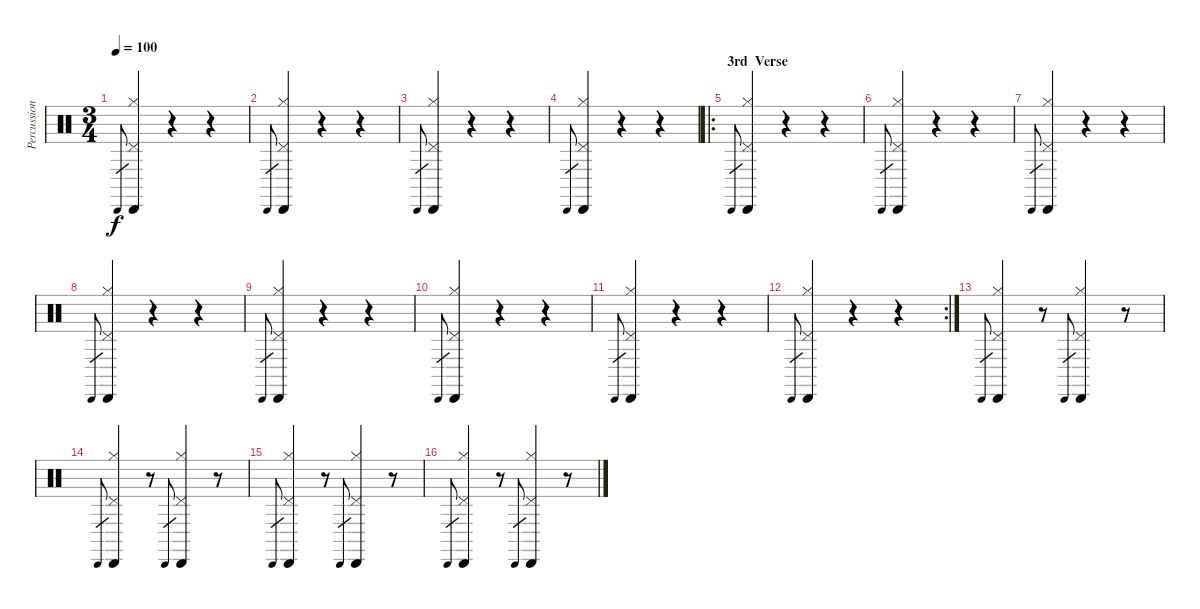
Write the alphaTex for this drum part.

\track ("Percussion" "Percussion") {instrument percussion}
\staff {score}
\articulation defaults
\ts (3 4)
\tempo 100
\clef neutral
\ks c "Cabasa (hit)".8{gr dy f}
("Pedal Hi-Hat (hit)" "Cabasa (hit)" "Hi-Hat (closed)").4 r.4 r.4 |
"Cabasa (hit)".8{gr} ("Pedal Hi-Hat (hit)" "Cabasa (hit)" "Hi-Hat (closed)").4 r.4 r.4 |
"Cabasa (hit)".8{gr} ("Pedal Hi-Hat (hit)" "Cabasa (hit)" "Hi-Hat (closed)").4 r.4 r.4 |
"Cabasa (hit)".8{gr} ("Pedal Hi-Hat (hit)" "Cabasa (hit)" "Hi-Hat (closed)").4 r.4 r.4 |
\ro
\section ("" "3rd  Verse")
"Cabasa (hit)".8{gr} ("Pedal Hi-Hat (hit)" "Cabasa (hit)" "Hi-Hat (closed)").4 r.4 r.4 |
"Cabasa (hit)".8{gr} ("Pedal Hi-Hat (hit)" "Cabasa (hit)" "Hi-Hat (closed)").4 r.4 r.4 |
"Cabasa (hit)".8{gr} ("Pedal Hi-Hat (hit)" "Cabasa (hit)" "Hi-Hat (closed)").4 r.4 r.4 |
"Cabasa (hit)".8{gr} ("Pedal Hi-Hat (hit)" "Cabasa (hit)" "Hi-Hat (closed)").4 r.4 r.4 |
"Cabasa (hit)".8{gr} ("Pedal Hi-Hat (hit)" "Cabasa (hit)" "Hi-Hat (closed)").4 r.4 r.4 |
"Cabasa (hit)".8{gr} ("Pedal Hi-Hat (hit)" "Cabasa (hit)" "Hi-Hat (closed)").4 r.4 r.4 |
"Cabasa (hit)".8{gr} ("Pedal Hi-Hat (hit)" "Cabasa (hit)" "Hi-Hat (closed)").4 r.4 r.4 |
\rc 2 "Cabasa (hit)".8{gr}
("Pedal Hi-Hat (hit)" "Cabasa (hit)" "Hi-Hat (closed)").4 r.4 r.4 |
"Cabasa (hit)".8{gr} ("Pedal Hi-Hat (hit)" "Cabasa (hit)" "Hi-Hat (closed)").4 r.8 "Cabasa (hit)".8{gr} ("Pedal Hi-Hat (hit)" "Cabasa (hit)" "Hi-Hat (closed)").4 r.8 |
"Cabasa (hit)".8{gr} ("Pedal Hi-Hat (hit)" "Cabasa (hit)" "Hi-Hat (closed)").4 r.8 "Cabasa (hit)".8{gr} ("Pedal Hi-Hat (hit)" "Cabasa (hit)" "Hi-Hat (closed)").4 r.8 |
"Cabasa (hit)".8{gr} ("Pedal Hi-Hat (hit)" "Cabasa (hit)" "Hi-Hat (closed)").4 r.8 "Cabasa (hit)".8{gr} ("Pedal Hi-Hat (hit)" "Cabasa (hit)" "Hi-Hat (closed)").4 r.8 |
"Cabasa (hit)".8{gr} ("Pedal Hi-Hat (hit)" "Cabasa (hit)" "Hi-Hat (closed)").4 r.8 "Cabasa (hit)".8{gr} ("Pedal Hi-Hat (hit)" "Cabasa (hit)" "Hi-Hat (closed)").4 r.8
